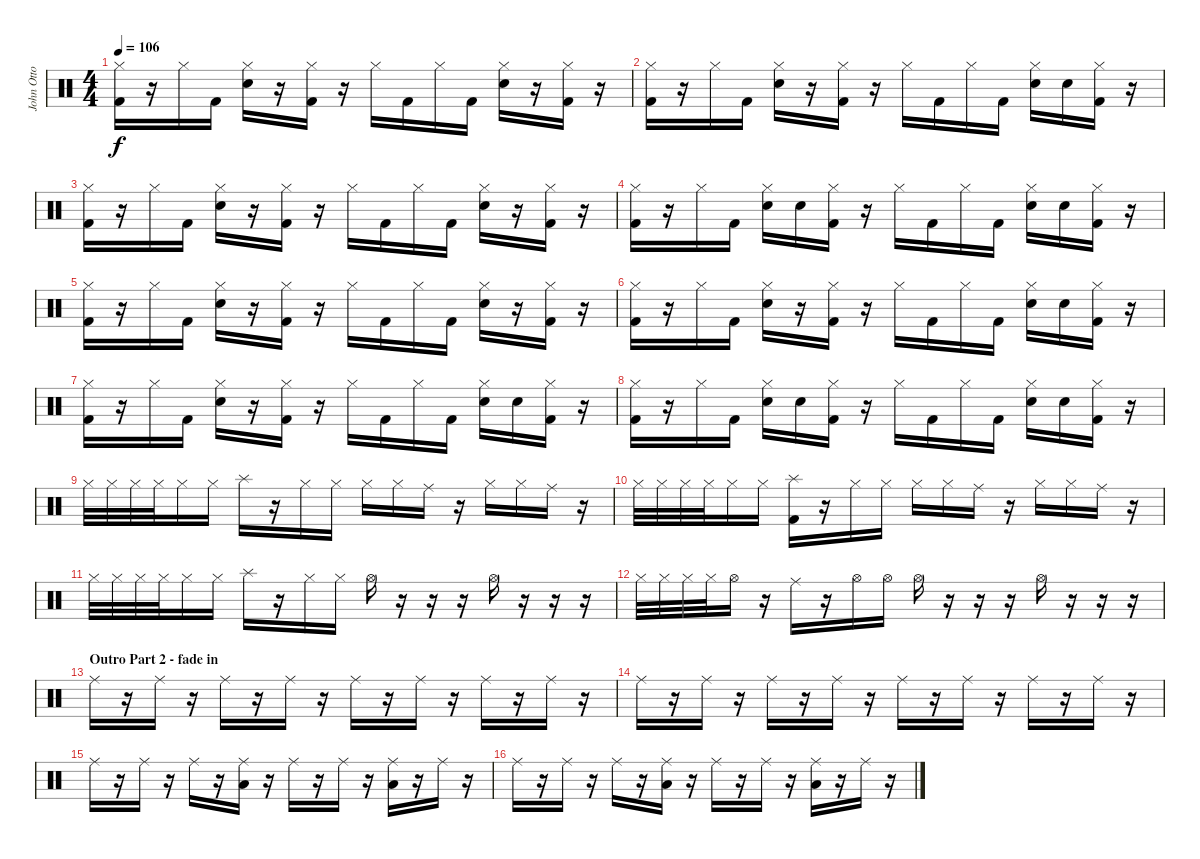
\track ("John Otto - Drums" "John Otto ") {instrument percussion}
\staff {score}
\articulation defaults
\ts (4 4)
\tempo 106
\clef neutral
\ks c
("Hi-Hat (closed)" "Kick (hit) 2").16{dy f} r.16 "Hi-Hat (closed)".16 "Kick (hit) 2".16 ("Hi-Hat (closed)" "Snare (hit) 2").16 r.16 ("Hi-Hat (closed)" "Kick (hit) 2").16 r.16 "Hi-Hat (closed)".16 "Kick (hit) 2".16 "Hi-Hat (closed)".16 "Kick (hit) 2".16 ("Hi-Hat (closed)" "Snare (hit) 2").16 r.16 ("Hi-Hat (closed)" "Kick (hit) 2").16 r.16 |
("Hi-Hat (closed)" "Kick (hit) 2").16 r.16 "Hi-Hat (closed)".16 "Kick (hit) 2".16 ("Hi-Hat (closed)" "Snare (hit) 2").16 r.16 ("Hi-Hat (closed)" "Kick (hit) 2").16 r.16 "Hi-Hat (closed)".16 "Kick (hit) 2".16 "Hi-Hat (closed)".16 "Kick (hit) 2".16 ("Hi-Hat (closed)" "Snare (hit) 2").16 "Snare (hit) 2".16 ("Hi-Hat (closed)" "Kick (hit) 2").16 r.16 |
("Hi-Hat (closed)" "Kick (hit) 2").16 r.16 "Hi-Hat (closed)".16 "Kick (hit) 2".16 ("Hi-Hat (closed)" "Snare (hit) 2").16 r.16 ("Hi-Hat (closed)" "Kick (hit) 2").16 r.16 "Hi-Hat (closed)".16 "Kick (hit) 2".16 "Hi-Hat (closed)".16 "Kick (hit) 2".16 ("Hi-Hat (closed)" "Snare (hit) 2").16 r.16 ("Hi-Hat (closed)" "Kick (hit) 2").16 r.16 |
("Hi-Hat (closed)" "Kick (hit) 2").16 r.16 "Hi-Hat (closed)".16 "Kick (hit) 2".16 ("Hi-Hat (closed)" "Snare (hit) 2").16 "Snare (hit) 2".16 ("Hi-Hat (closed)" "Kick (hit) 2").16 r.16 "Hi-Hat (closed)".16 "Kick (hit) 2".16 "Hi-Hat (closed)".16 "Kick (hit) 2".16 ("Hi-Hat (closed)" "Snare (hit) 2").16 "Snare (hit) 2".16 ("Hi-Hat (closed)" "Kick (hit) 2").16 r.16 |
("Hi-Hat (closed)" "Kick (hit) 2").16 r.16 "Hi-Hat (closed)".16 "Kick (hit) 2".16 ("Hi-Hat (closed)" "Snare (hit) 2").16 r.16 ("Hi-Hat (closed)" "Kick (hit) 2").16 r.16 "Hi-Hat (closed)".16 "Kick (hit) 2".16 "Hi-Hat (closed)".16 "Kick (hit) 2".16 ("Hi-Hat (closed)" "Snare (hit) 2").16 r.16 ("Hi-Hat (closed)" "Kick (hit) 2").16 r.16 |
("Hi-Hat (closed)" "Kick (hit) 2").16 r.16 "Hi-Hat (closed)".16 "Kick (hit) 2".16 ("Hi-Hat (closed)" "Snare (hit) 2").16 r.16 ("Hi-Hat (closed)" "Kick (hit) 2").16 r.16 "Hi-Hat (closed)".16 "Kick (hit) 2".16 "Hi-Hat (closed)".16 "Kick (hit) 2".16 ("Hi-Hat (closed)" "Snare (hit) 2").16 "Snare (hit) 2".16 ("Hi-Hat (closed)" "Kick (hit) 2").16 r.16 |
("Hi-Hat (closed)" "Kick (hit) 2").16 r.16 "Hi-Hat (closed)".16 "Kick (hit) 2".16 ("Hi-Hat (closed)" "Snare (hit) 2").16 r.16 ("Hi-Hat (closed)" "Kick (hit) 2").16 r.16 "Hi-Hat (closed)".16 "Kick (hit) 2".16 "Hi-Hat (closed)".16 "Kick (hit) 2".16 ("Hi-Hat (closed)" "Snare (hit) 2").16 "Snare (hit) 2".16 ("Hi-Hat (closed)" "Kick (hit) 2").16 r.16 |
("Hi-Hat (closed)" "Kick (hit) 2").16 r.16 "Hi-Hat (closed)".16 "Kick (hit) 2".16 ("Hi-Hat (closed)" "Snare (hit) 2").16 "Snare (hit) 2".16 ("Hi-Hat (closed)" "Kick (hit) 2").16 r.16 "Hi-Hat (closed)".16 "Kick (hit) 2".16 "Hi-Hat (closed)".16 "Kick (hit) 2".16 ("Hi-Hat (closed)" "Snare (hit) 2").16 "Snare (hit) 2".16 ("Hi-Hat (closed)" "Kick (hit) 2").16 r.16 |
"Hi-Hat (closed)".32 "Hi-Hat (closed)".32 "Hi-Hat (closed)".32 "Hi-Hat (closed)".32 "Hi-Hat (closed)".16 "Hi-Hat (closed)".16 "Splash (hit)".16 r.16 "Hi-Hat (closed)".16 "Hi-Hat (closed)".16 "Hi-Hat (closed)".16 "Hi-Hat (closed)".16 "Ride (middle)".16 r.16 "Hi-Hat (closed)".16 "Hi-Hat (closed)".16 "Ride (middle)".16 r.16 |
"Hi-Hat (closed)".32 "Hi-Hat (closed)".32 "Hi-Hat (closed)".32 "Hi-Hat (closed)".32 "Hi-Hat (closed)".16 "Hi-Hat (closed)".16 ("Splash (hit)" "Kick (hit) 2").16 r.16 "Hi-Hat (closed)".16 "Hi-Hat (closed)".16 "Hi-Hat (closed)".16 "Hi-Hat (closed)".16 "Ride (middle)".16 r.16 "Hi-Hat (closed)".16 "Hi-Hat (closed)".16 "Ride (middle)".16 r.16 |
"Hi-Hat (closed)".32 "Hi-Hat (closed)".32 "Hi-Hat (closed)".32 "Hi-Hat (closed)".32 "Hi-Hat (closed)".16 "Hi-Hat (closed)".16 "Splash (hit)".16 r.16 "Hi-Hat (closed)".16 "Hi-Hat (closed)".16 "Hi-Hat (open)".16 r.16 r.16 r.16 "Hi-Hat (open)".16 r.16 r.16 r.16 |
"Hi-Hat (closed)".32 "Hi-Hat (closed)".32 "Hi-Hat (closed)".32 "Hi-Hat (closed)".32 "Hi-Hat (open)".16 r.16 "Ride (middle)".16 r.16 "Hi-Hat (open)".16 "Hi-Hat (open)".16 "Hi-Hat (open)".16 r.16 r.16 r.16 "Hi-Hat (open)".16 r.16 r.16 r.16 |
\section ("" "Outro Part 2 - fade in")
"Ride (middle)".16 r.16 "Ride (middle)".16 r.16 "Ride (middle)".16 r.16 "Ride (middle)".16 r.16 "Ride (middle)".16 r.16 "Ride (middle)".16 r.16 "Ride (middle)".16 r.16 "Ride (middle)".16 r.16 |
"Ride (middle)".16 r.16 "Ride (middle)".16 r.16 "Ride (middle)".16 r.16 "Ride (middle)".16 r.16 "Ride (middle)".16 r.16 "Ride (middle)".16 r.16 "Ride (middle)".16 r.16 "Ride (middle)".16 r.16 |
"Ride (middle)".16 r.16 "Ride (middle)".16 r.16 "Ride (middle)".16 r.16 ("Ride (middle)" "Low Floor Tom (hit)").16 r.16 "Ride (middle)".16 r.16 "Ride (middle)".16 r.16 ("Ride (middle)" "Low Tom (hit)").16 r.16 "Ride (middle)".16 r.16 |
"Ride (middle)".16 r.16 "Ride (middle)".16 r.16 "Ride (middle)".16 r.16 ("Ride (middle)" "Low Floor Tom (hit)").16 r.16 "Ride (middle)".16 r.16 "Ride (middle)".16 r.16 ("Ride (middle)" "Low Tom (hit)").16 r.16 "Ride (middle)".16 r.16
